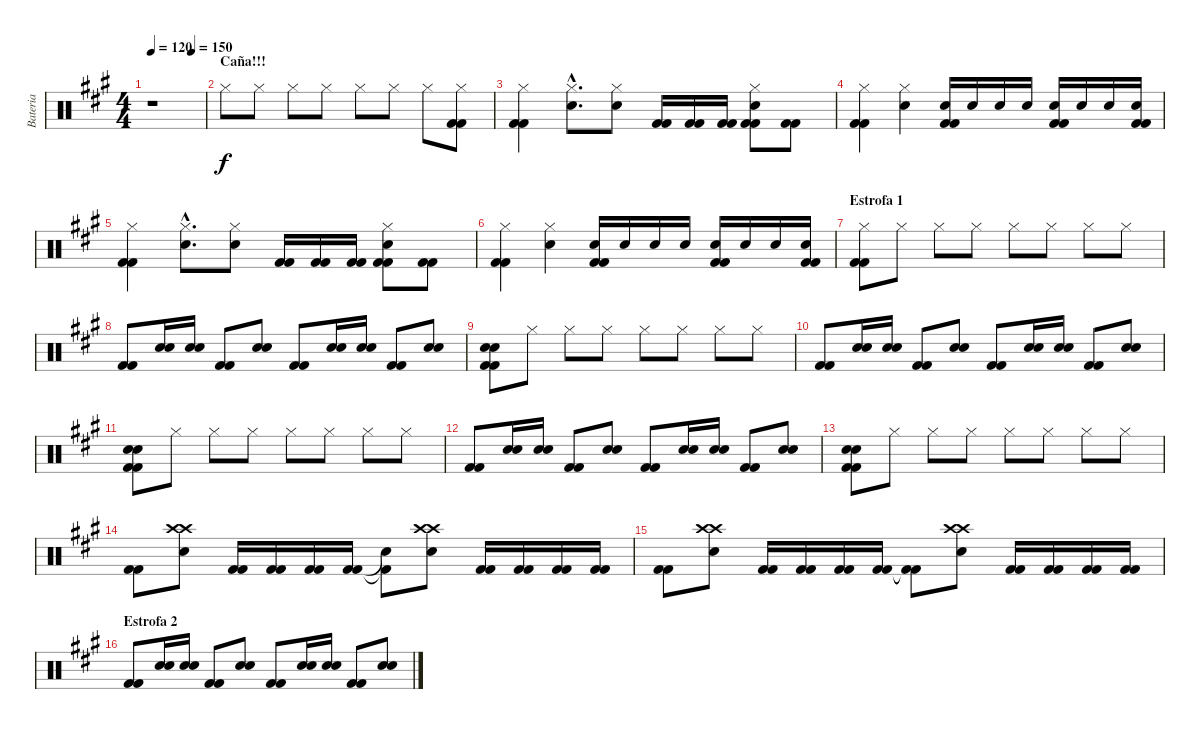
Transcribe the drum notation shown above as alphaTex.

\track ("Bateria" "Bateria") {instrument percussion}
\staff {score}
\articulation defaults
\ts (4 4)
\tempo 120
\tempo (150 0.75)
\clef neutral
\ks a
r.1{dy f} |
\section ("" "Caña!!!")
"Hi-Hat (closed)".8 "Hi-Hat (closed)".8 "Hi-Hat (closed)".8 "Hi-Hat (closed)".8 "Hi-Hat (closed)".8 "Hi-Hat (closed)".8 "Hi-Hat (closed)".8 ("Kick (hit) 2" "Kick (hit) 2" "Hi-Hat (closed)").8 |
("Hi-Hat (closed)" "Kick (hit) 2" "Kick (hit) 2").4 ("Hi-Hat (closed)"{hac} "Electric Snare (hit)"{hac}).8{d} ("Hi-Hat (closed)" "Electric Snare (hit)").8 ("Kick (hit) 2" "Kick (hit) 2").16 ("Kick (hit) 2" "Kick (hit) 2").16 ("Kick (hit) 2" "Kick (hit) 2").16 ("Hi-Hat (closed)" "Electric Snare (hit)" "Kick (hit) 2" "Kick (hit) 2").8 ("Kick (hit) 2" "Kick (hit) 2").8 |
("Hi-Hat (closed)" "Kick (hit) 2" "Kick (hit) 2").4 ("Hi-Hat (closed)" "Electric Snare (hit)").4 ("Electric Snare (hit)" "Kick (hit) 2" "Kick (hit) 2").16 "Electric Snare (hit)".16 "Electric Snare (hit)".16 "Electric Snare (hit)".16 ("Snare (hit) 2" "Kick (hit) 2" "Kick (hit) 2").16 "Snare (hit) 2".16 "Snare (hit) 2".16 ("Snare (hit) 2" "Kick (hit) 2" "Kick (hit) 2").16 |
("Hi-Hat (closed)" "Kick (hit) 2" "Kick (hit) 2").4 ("Hi-Hat (closed)"{hac} "Electric Snare (hit)"{hac}).8{d} ("Hi-Hat (closed)" "Electric Snare (hit)").8 ("Kick (hit) 2" "Kick (hit) 2").16 ("Kick (hit) 2" "Kick (hit) 2").16 ("Kick (hit) 2" "Kick (hit) 2").16 ("Hi-Hat (closed)" "Electric Snare (hit)" "Kick (hit) 2" "Kick (hit) 2").8 ("Kick (hit) 2" "Kick (hit) 2").8 |
("Hi-Hat (closed)" "Kick (hit) 2" "Kick (hit) 2").4 ("Hi-Hat (closed)" "Electric Snare (hit)").4 ("Electric Snare (hit)" "Kick (hit) 2" "Kick (hit) 2").16 "Electric Snare (hit)".16 "Electric Snare (hit)".16 "Electric Snare (hit)".16 ("Snare (hit) 2" "Kick (hit) 2" "Kick (hit) 2").16 "Snare (hit) 2".16 "Snare (hit) 2".16 ("Snare (hit) 2" "Kick (hit) 2" "Kick (hit) 2").16 |
\section ("" "Estrofa 1")
("Hi-Hat (closed)" "Kick (hit) 2" "Kick (hit) 2").8 "Hi-Hat (closed)".8 "Hi-Hat (closed)".8 "Hi-Hat (closed)".8 "Hi-Hat (closed)".8 "Hi-Hat (closed)".8 "Hi-Hat (closed)".8 "Hi-Hat (closed)".8 |
("Kick (hit) 2" "Kick (hit) 2").8 ("Electric Snare (hit)" "Snare (hit) 2").16 ("Electric Snare (hit)" "Snare (hit) 2").16 ("Kick (hit) 2" "Kick (hit) 2").8 ("Electric Snare (hit)" "Snare (hit) 2").8 ("Kick (hit) 2" "Kick (hit) 2").8 ("Electric Snare (hit)" "Snare (hit) 2").16 ("Electric Snare (hit)" "Snare (hit) 2").16 ("Kick (hit) 2" "Kick (hit) 2").8 ("Electric Snare (hit)" "Snare (hit) 2").8 |
("Electric Snare (hit)" "Snare (hit) 2" "Kick (hit) 2" "Kick (hit) 2").8 "Hi-Hat (closed)".8 "Hi-Hat (closed)".8 "Hi-Hat (closed)".8 "Hi-Hat (closed)".8 "Hi-Hat (closed)".8 "Hi-Hat (closed)".8 "Hi-Hat (closed)".8 |
("Kick (hit) 2" "Kick (hit) 2").8 ("Electric Snare (hit)" "Snare (hit) 2").16 ("Electric Snare (hit)" "Snare (hit) 2").16 ("Kick (hit) 2" "Kick (hit) 2").8 ("Electric Snare (hit)" "Snare (hit) 2").8 ("Kick (hit) 2" "Kick (hit) 2").8 ("Electric Snare (hit)" "Snare (hit) 2").16 ("Electric Snare (hit)" "Snare (hit) 2").16 ("Kick (hit) 2" "Kick (hit) 2").8 ("Electric Snare (hit)" "Snare (hit) 2").8 |
("Electric Snare (hit)" "Snare (hit) 2" "Kick (hit) 2" "Kick (hit) 2").8 "Hi-Hat (closed)".8 "Hi-Hat (closed)".8 "Hi-Hat (closed)".8 "Hi-Hat (closed)".8 "Hi-Hat (closed)".8 "Hi-Hat (closed)".8 "Hi-Hat (closed)".8 |
("Kick (hit) 2" "Kick (hit) 2").8 ("Electric Snare (hit)" "Snare (hit) 2").16 ("Electric Snare (hit)" "Snare (hit) 2").16 ("Kick (hit) 2" "Kick (hit) 2").8 ("Electric Snare (hit)" "Snare (hit) 2").8 ("Kick (hit) 2" "Kick (hit) 2").8 ("Electric Snare (hit)" "Snare (hit) 2").16 ("Electric Snare (hit)" "Snare (hit) 2").16 ("Kick (hit) 2" "Kick (hit) 2").8 ("Electric Snare (hit)" "Snare (hit) 2").8 |
("Electric Snare (hit)" "Snare (hit) 2" "Kick (hit) 2" "Kick (hit) 2").8 "Hi-Hat (closed)".8 "Hi-Hat (closed)".8 "Hi-Hat (closed)".8 "Hi-Hat (closed)".8 "Hi-Hat (closed)".8 "Hi-Hat (closed)".8 "Hi-Hat (closed)".8 |
("Kick (hit) 2" "Kick (hit) 2").8 ("Crash high (hit)" "Crash high (hit)" "Electric Snare (hit)").8 ("Kick (hit) 2" "Kick (hit) 2").16 ("Kick (hit) 2" "Kick (hit) 2").16 ("Kick (hit) 2" "Kick (hit) 2").16 ("Kick (hit) 2" "Kick (hit) 2").16 ("Snare (hit)"{t} "Kick (hit) 2"{t}).8 ("Crash high (hit)" "Crash high (hit)" "Electric Snare (hit)").8 ("Kick (hit) 2" "Kick (hit) 2").16 ("Kick (hit) 2" "Kick (hit) 2").16 ("Kick (hit) 2" "Kick (hit) 2").16 ("Kick (hit) 2" "Kick (hit) 2").16 |
("Kick (hit) 2" "Kick (hit) 2").8 ("Crash high (hit)" "Crash high (hit)" "Electric Snare (hit)").8 ("Kick (hit) 2" "Kick (hit) 2").16 ("Kick (hit) 2" "Kick (hit) 2").16 ("Kick (hit) 2" "Kick (hit) 2").16 ("Kick (hit) 2" "Kick (hit) 2").16 ("Kick (hit) 2"{t} "Kick (hit) 2"{t}).8 ("Crash high (hit)" "Crash high (hit)" "Electric Snare (hit)").8 ("Kick (hit) 2" "Kick (hit) 2").16 ("Kick (hit) 2" "Kick (hit) 2").16 ("Kick (hit) 2" "Kick (hit) 2").16 ("Kick (hit) 2" "Kick (hit) 2").16 |
\section ("" "Estrofa 2")
("Kick (hit) 2" "Kick (hit) 2").8 ("Electric Snare (hit)" "Snare (hit) 2").16 ("Electric Snare (hit)" "Snare (hit) 2").16 ("Kick (hit) 2" "Kick (hit) 2").8 ("Electric Snare (hit)" "Snare (hit) 2").8 ("Kick (hit) 2" "Kick (hit) 2").8 ("Electric Snare (hit)" "Snare (hit) 2").16 ("Electric Snare (hit)" "Snare (hit) 2").16 ("Kick (hit) 2" "Kick (hit) 2").8 ("Electric Snare (hit)" "Snare (hit) 2").8
